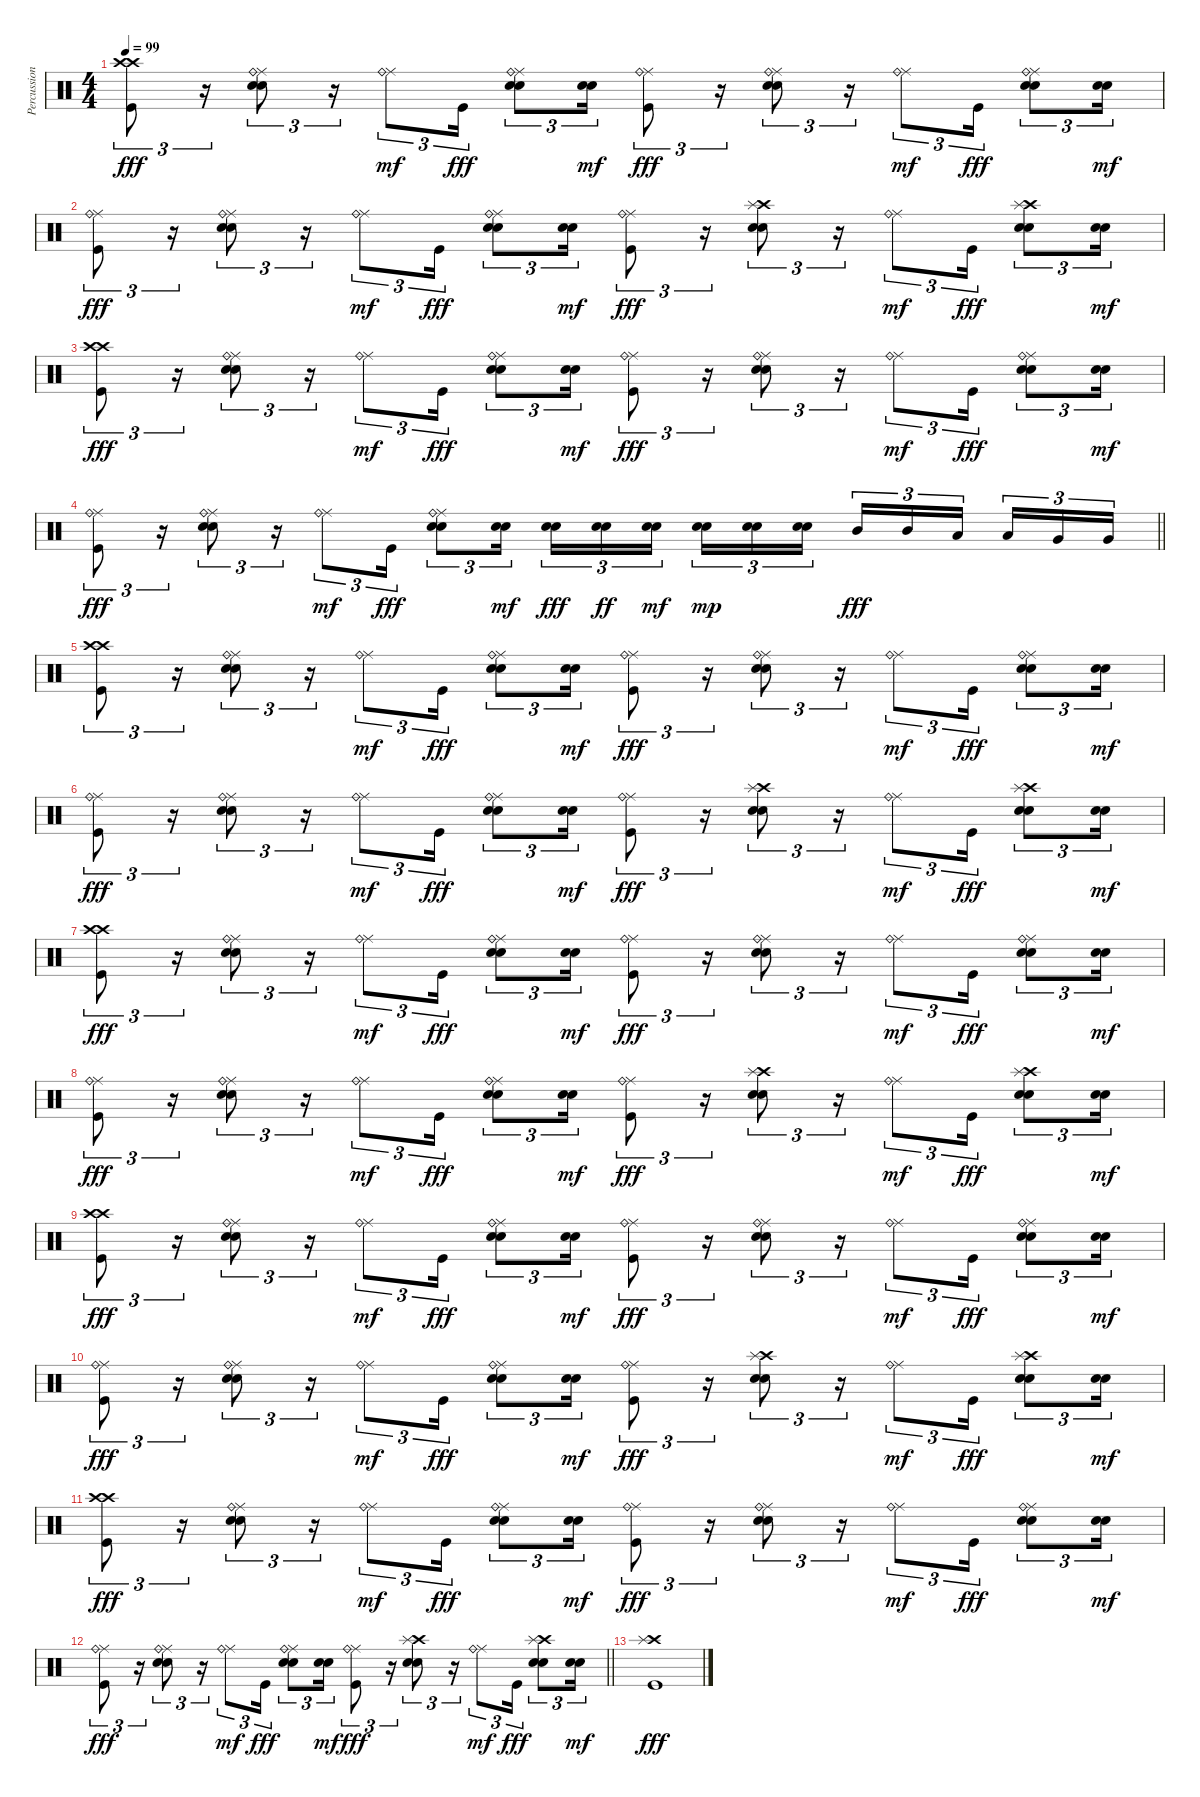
\track ("Percussion" "Percussion") {instrument percussion}
\staff {score}
\articulation defaults
\ts (4 4)
\tempo 99
\clef neutral
\ks c
("Crash high (hit)" "Crash high (hit)" "Kick (hit)").8{tu (3 2) dy fff} r.16{tu (3 2)} ("Ride (middle)" "Ride (bell)" "Snare (hit) 2" "Electric Snare (hit)").8{tu (3 2)} r.16{tu (3 2)} ("Ride (middle)" "Ride (bell)").8{tu (3 2) dy mf} "Kick (hit)".16{tu (3 2) dy fff} ("Ride (middle)" "Ride (bell)" "Snare (hit) 2" "Electric Snare (hit)").8{tu (3 2)} ("Snare (hit) 2" "Electric Snare (hit)").16{tu (3 2) dy mf} ("Ride (middle)" "Ride (bell)" "Kick (hit)").8{tu (3 2) dy fff} r.16{tu (3 2)} ("Ride (middle)" "Ride (bell)" "Snare (hit) 2" "Electric Snare (hit)").8{tu (3 2)} r.16{tu (3 2)} ("Ride (middle)" "Ride (bell)").8{tu (3 2) dy mf} "Kick (hit)".16{tu (3 2) dy fff} ("Ride (middle)" "Ride (bell)" "Snare (hit) 2" "Electric Snare (hit)").8{tu (3 2)} ("Snare (hit) 2" "Electric Snare (hit)").16{tu (3 2) dy mf} |
("Ride (middle)" "Ride (bell)" "Kick (hit)").8{tu (3 2) dy fff} r.16{tu (3 2)} ("Ride (middle)" "Ride (bell)" "Snare (hit) 2" "Electric Snare (hit)").8{tu (3 2)} r.16{tu (3 2)} ("Ride (middle)" "Ride (bell)").8{tu (3 2) dy mf} "Kick (hit)".16{tu (3 2) dy fff} ("Ride (middle)" "Ride (bell)" "Snare (hit) 2" "Electric Snare (hit)").8{tu (3 2)} ("Snare (hit) 2" "Electric Snare (hit)").16{tu (3 2) dy mf} ("Ride (middle)" "Ride (bell)" "Kick (hit)").8{tu (3 2) dy fff} r.16{tu (3 2)} ("Crash high (hit)" "Splash (hit)" "Snare (hit) 2" "Electric Snare (hit)").8{tu (3 2)} r.16{tu (3 2)} ("Ride (middle)" "Ride (bell)").8{tu (3 2) dy mf} "Kick (hit)".16{tu (3 2) dy fff} ("Crash high (hit)" "Splash (hit)" "Snare (hit) 2" "Electric Snare (hit)").8{tu (3 2)} ("Snare (hit) 2" "Electric Snare (hit)").16{tu (3 2) dy mf} |
("Crash high (hit)" "Crash high (hit)" "Kick (hit)").8{tu (3 2) dy fff} r.16{tu (3 2)} ("Ride (middle)" "Ride (bell)" "Snare (hit) 2" "Electric Snare (hit)").8{tu (3 2)} r.16{tu (3 2)} ("Ride (middle)" "Ride (bell)").8{tu (3 2) dy mf} "Kick (hit)".16{tu (3 2) dy fff} ("Ride (middle)" "Ride (bell)" "Snare (hit) 2" "Electric Snare (hit)").8{tu (3 2)} ("Snare (hit) 2" "Electric Snare (hit)").16{tu (3 2) dy mf} ("Ride (middle)" "Ride (bell)" "Kick (hit)").8{tu (3 2) dy fff} r.16{tu (3 2)} ("Ride (middle)" "Ride (bell)" "Snare (hit) 2" "Electric Snare (hit)").8{tu (3 2)} r.16{tu (3 2)} ("Ride (middle)" "Ride (bell)").8{tu (3 2) dy mf} "Kick (hit)".16{tu (3 2) dy fff} ("Ride (middle)" "Ride (bell)" "Snare (hit) 2" "Electric Snare (hit)").8{tu (3 2)} ("Snare (hit) 2" "Electric Snare (hit)").16{tu (3 2) dy mf} |
\barLineRight lightlight
("Ride (middle)" "Ride (bell)" "Kick (hit)").8{tu (3 2) dy fff} r.16{tu (3 2)} ("Ride (middle)" "Ride (bell)" "Snare (hit) 2" "Electric Snare (hit)").8{tu (3 2)} r.16{tu (3 2)} ("Ride (middle)" "Ride (bell)").8{tu (3 2) dy mf} "Kick (hit)".16{tu (3 2) dy fff} ("Ride (middle)" "Ride (bell)" "Snare (hit) 2" "Electric Snare (hit)").8{tu (3 2)} ("Snare (hit) 2" "Electric Snare (hit)").16{tu (3 2) dy mf} ("Snare (hit) 2" "Electric Snare (hit)").16{tu (3 2) dy fff} ("Snare (hit) 2" "Electric Snare (hit)").16{tu (3 2) dy ff} ("Snare (hit) 2" "Electric Snare (hit)").16{tu (3 2) dy mf beam splitsecondary} ("Snare (hit) 2" "Electric Snare (hit)").16{tu (3 2) dy mp} ("Snare (hit) 2" "Electric Snare (hit)").16{tu (3 2)} ("Snare (hit) 2" "Electric Snare (hit)").16{tu (3 2)} "Mid Tom (hit)".16{tu (3 2) dy fff} "Mid Tom (hit)".16{tu (3 2)} "Low Tom (hit)".16{tu (3 2) beam splitsecondary} "Low Tom (hit)".16{tu (3 2)} "Very Low Tom (hit)".16{tu (3 2)} "Very Low Tom (hit)".16{tu (3 2)} |
("Crash high (hit)" "Crash high (hit)" "Kick (hit)").8{tu (3 2)} r.16{tu (3 2)} ("Ride (middle)" "Ride (bell)" "Snare (hit) 2" "Electric Snare (hit)").8{tu (3 2)} r.16{tu (3 2)} ("Ride (middle)" "Ride (bell)").8{tu (3 2) dy mf} "Kick (hit)".16{tu (3 2) dy fff} ("Ride (middle)" "Ride (bell)" "Snare (hit) 2" "Electric Snare (hit)").8{tu (3 2)} ("Snare (hit) 2" "Electric Snare (hit)").16{tu (3 2) dy mf} ("Ride (middle)" "Ride (bell)" "Kick (hit)").8{tu (3 2) dy fff} r.16{tu (3 2)} ("Ride (middle)" "Ride (bell)" "Snare (hit) 2" "Electric Snare (hit)").8{tu (3 2)} r.16{tu (3 2)} ("Ride (middle)" "Ride (bell)").8{tu (3 2) dy mf} "Kick (hit)".16{tu (3 2) dy fff} ("Ride (middle)" "Ride (bell)" "Snare (hit) 2" "Electric Snare (hit)").8{tu (3 2)} ("Snare (hit) 2" "Electric Snare (hit)").16{tu (3 2) dy mf} |
("Ride (middle)" "Ride (bell)" "Kick (hit)").8{tu (3 2) dy fff} r.16{tu (3 2)} ("Ride (middle)" "Ride (bell)" "Snare (hit) 2" "Electric Snare (hit)").8{tu (3 2)} r.16{tu (3 2)} ("Ride (middle)" "Ride (bell)").8{tu (3 2) dy mf} "Kick (hit)".16{tu (3 2) dy fff} ("Ride (middle)" "Ride (bell)" "Snare (hit) 2" "Electric Snare (hit)").8{tu (3 2)} ("Snare (hit) 2" "Electric Snare (hit)").16{tu (3 2) dy mf} ("Ride (middle)" "Ride (bell)" "Kick (hit)").8{tu (3 2) dy fff} r.16{tu (3 2)} ("Crash high (hit)" "Splash (hit)" "Snare (hit) 2" "Electric Snare (hit)").8{tu (3 2)} r.16{tu (3 2)} ("Ride (middle)" "Ride (bell)").8{tu (3 2) dy mf} "Kick (hit)".16{tu (3 2) dy fff} ("Crash high (hit)" "Splash (hit)" "Snare (hit) 2" "Electric Snare (hit)").8{tu (3 2)} ("Snare (hit) 2" "Electric Snare (hit)").16{tu (3 2) dy mf} |
("Crash high (hit)" "Crash high (hit)" "Kick (hit)").8{tu (3 2) dy fff} r.16{tu (3 2)} ("Ride (middle)" "Ride (bell)" "Snare (hit) 2" "Electric Snare (hit)").8{tu (3 2)} r.16{tu (3 2)} ("Ride (middle)" "Ride (bell)").8{tu (3 2) dy mf} "Kick (hit)".16{tu (3 2) dy fff} ("Ride (middle)" "Ride (bell)" "Snare (hit) 2" "Electric Snare (hit)").8{tu (3 2)} ("Snare (hit) 2" "Electric Snare (hit)").16{tu (3 2) dy mf} ("Ride (middle)" "Ride (bell)" "Kick (hit)").8{tu (3 2) dy fff} r.16{tu (3 2)} ("Ride (middle)" "Ride (bell)" "Snare (hit) 2" "Electric Snare (hit)").8{tu (3 2)} r.16{tu (3 2)} ("Ride (middle)" "Ride (bell)").8{tu (3 2) dy mf} "Kick (hit)".16{tu (3 2) dy fff} ("Ride (middle)" "Ride (bell)" "Snare (hit) 2" "Electric Snare (hit)").8{tu (3 2)} ("Snare (hit) 2" "Electric Snare (hit)").16{tu (3 2) dy mf} |
("Ride (middle)" "Ride (bell)" "Kick (hit)").8{tu (3 2) dy fff} r.16{tu (3 2)} ("Ride (middle)" "Ride (bell)" "Snare (hit) 2" "Electric Snare (hit)").8{tu (3 2)} r.16{tu (3 2)} ("Ride (middle)" "Ride (bell)").8{tu (3 2) dy mf} "Kick (hit)".16{tu (3 2) dy fff} ("Ride (middle)" "Ride (bell)" "Snare (hit) 2" "Electric Snare (hit)").8{tu (3 2)} ("Snare (hit) 2" "Electric Snare (hit)").16{tu (3 2) dy mf} ("Ride (middle)" "Ride (bell)" "Kick (hit)").8{tu (3 2) dy fff} r.16{tu (3 2)} ("Crash high (hit)" "Splash (hit)" "Snare (hit) 2" "Electric Snare (hit)").8{tu (3 2)} r.16{tu (3 2)} ("Ride (middle)" "Ride (bell)").8{tu (3 2) dy mf} "Kick (hit)".16{tu (3 2) dy fff} ("Crash high (hit)" "Splash (hit)" "Snare (hit) 2" "Electric Snare (hit)").8{tu (3 2)} ("Snare (hit) 2" "Electric Snare (hit)").16{tu (3 2) dy mf} |
("Crash high (hit)" "Crash high (hit)" "Kick (hit)").8{tu (3 2) dy fff} r.16{tu (3 2)} ("Ride (middle)" "Ride (bell)" "Snare (hit) 2" "Electric Snare (hit)").8{tu (3 2)} r.16{tu (3 2)} ("Ride (middle)" "Ride (bell)").8{tu (3 2) dy mf} "Kick (hit)".16{tu (3 2) dy fff} ("Ride (middle)" "Ride (bell)" "Snare (hit) 2" "Electric Snare (hit)").8{tu (3 2)} ("Snare (hit) 2" "Electric Snare (hit)").16{tu (3 2) dy mf} ("Ride (middle)" "Ride (bell)" "Kick (hit)").8{tu (3 2) dy fff} r.16{tu (3 2)} ("Ride (middle)" "Ride (bell)" "Snare (hit) 2" "Electric Snare (hit)").8{tu (3 2)} r.16{tu (3 2)} ("Ride (middle)" "Ride (bell)").8{tu (3 2) dy mf} "Kick (hit)".16{tu (3 2) dy fff} ("Ride (middle)" "Ride (bell)" "Snare (hit) 2" "Electric Snare (hit)").8{tu (3 2)} ("Snare (hit) 2" "Electric Snare (hit)").16{tu (3 2) dy mf} |
("Ride (middle)" "Ride (bell)" "Kick (hit)").8{tu (3 2) dy fff} r.16{tu (3 2)} ("Ride (middle)" "Ride (bell)" "Snare (hit) 2" "Electric Snare (hit)").8{tu (3 2)} r.16{tu (3 2)} ("Ride (middle)" "Ride (bell)").8{tu (3 2) dy mf} "Kick (hit)".16{tu (3 2) dy fff} ("Ride (middle)" "Ride (bell)" "Snare (hit) 2" "Electric Snare (hit)").8{tu (3 2)} ("Snare (hit) 2" "Electric Snare (hit)").16{tu (3 2) dy mf} ("Ride (middle)" "Ride (bell)" "Kick (hit)").8{tu (3 2) dy fff} r.16{tu (3 2)} ("Crash high (hit)" "Splash (hit)" "Snare (hit) 2" "Electric Snare (hit)").8{tu (3 2)} r.16{tu (3 2)} ("Ride (middle)" "Ride (bell)").8{tu (3 2) dy mf} "Kick (hit)".16{tu (3 2) dy fff} ("Crash high (hit)" "Splash (hit)" "Snare (hit) 2" "Electric Snare (hit)").8{tu (3 2)} ("Snare (hit) 2" "Electric Snare (hit)").16{tu (3 2) dy mf} |
("Crash high (hit)" "Crash high (hit)" "Kick (hit)").8{tu (3 2) dy fff} r.16{tu (3 2)} ("Ride (middle)" "Ride (bell)" "Snare (hit) 2" "Electric Snare (hit)").8{tu (3 2)} r.16{tu (3 2)} ("Ride (middle)" "Ride (bell)").8{tu (3 2) dy mf} "Kick (hit)".16{tu (3 2) dy fff} ("Ride (middle)" "Ride (bell)" "Snare (hit) 2" "Electric Snare (hit)").8{tu (3 2)} ("Snare (hit) 2" "Electric Snare (hit)").16{tu (3 2) dy mf} ("Ride (middle)" "Ride (bell)" "Kick (hit)").8{tu (3 2) dy fff} r.16{tu (3 2)} ("Ride (middle)" "Ride (bell)" "Snare (hit) 2" "Electric Snare (hit)").8{tu (3 2)} r.16{tu (3 2)} ("Ride (middle)" "Ride (bell)").8{tu (3 2) dy mf} "Kick (hit)".16{tu (3 2) dy fff} ("Ride (middle)" "Ride (bell)" "Snare (hit) 2" "Electric Snare (hit)").8{tu (3 2)} ("Snare (hit) 2" "Electric Snare (hit)").16{tu (3 2) dy mf} |
\barLineRight lightlight
("Ride (middle)" "Ride (bell)" "Kick (hit)").8{tu (3 2) dy fff} r.16{tu (3 2)} ("Ride (middle)" "Ride (bell)" "Snare (hit) 2" "Electric Snare (hit)").8{tu (3 2)} r.16{tu (3 2)} ("Ride (middle)" "Ride (bell)").8{tu (3 2) dy mf} "Kick (hit)".16{tu (3 2) dy fff} ("Ride (middle)" "Ride (bell)" "Snare (hit) 2" "Electric Snare (hit)").8{tu (3 2)} ("Snare (hit) 2" "Electric Snare (hit)").16{tu (3 2) dy mf} ("Ride (middle)" "Ride (bell)" "Kick (hit)").8{tu (3 2) dy fff} r.16{tu (3 2)} ("Crash high (hit)" "Splash (hit)" "Snare (hit) 2" "Electric Snare (hit)").8{tu (3 2)} r.16{tu (3 2)} ("Ride (middle)" "Ride (bell)").8{tu (3 2) dy mf} "Kick (hit)".16{tu (3 2) dy fff} ("Crash high (hit)" "Splash (hit)" "Snare (hit) 2" "Electric Snare (hit)").8{tu (3 2)} ("Snare (hit) 2" "Electric Snare (hit)").16{tu (3 2) dy mf} |
("Crash high (hit)" "Splash (hit)" "Kick (hit)").1{dy fff}
